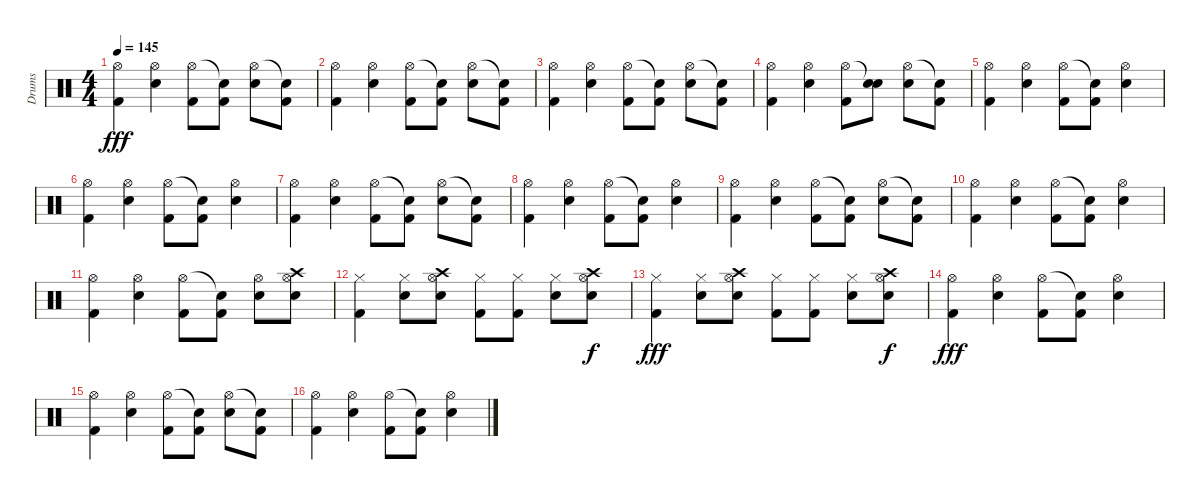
\track ("Drums" "Drums") {instrument percussion}
\staff {score}
\articulation defaults
\ts (4 4)
\tempo 145
\clef neutral
\ks c
("Hi-Hat (open)" "Kick (hit) 2").4{dy fff} ("Hi-Hat (open)" "Electric Snare (hit)").4 ("Hi-Hat (open)" "Kick (hit) 2").8 ("Snare (hit)"{t} "Kick (hit) 2").8 ("Hi-Hat (open)" "Electric Snare (hit)").8 ("Snare (hit)"{t} "Kick (hit) 2").8 |
("Hi-Hat (open)" "Kick (hit) 2").4 ("Hi-Hat (open)" "Electric Snare (hit)").4 ("Hi-Hat (open)" "Kick (hit) 2").8 ("Snare (hit)"{t} "Kick (hit) 2").8 ("Hi-Hat (open)" "Electric Snare (hit)").8 ("Snare (hit)"{t} "Kick (hit) 2").8 |
("Hi-Hat (open)" "Kick (hit) 2").4 ("Hi-Hat (open)" "Electric Snare (hit)").4 ("Hi-Hat (open)" "Kick (hit) 2").8 ("Snare (hit)"{t} "Kick (hit) 2").8 ("Hi-Hat (open)" "Electric Snare (hit)").8 ("Snare (hit)"{t} "Kick (hit) 2").8 |
("Hi-Hat (open)" "Kick (hit) 2").4 ("Hi-Hat (open)" "Electric Snare (hit)").4 ("Hi-Hat (open)" "Kick (hit) 2").8 ("Snare (hit)"{t} "Electric Snare (hit)").8 ("Hi-Hat (open)" "Electric Snare (hit)").8 ("Snare (hit)"{t} "Kick (hit) 2").8 |
("Hi-Hat (open)" "Kick (hit) 2").4 ("Hi-Hat (open)" "Electric Snare (hit)").4 ("Hi-Hat (open)" "Kick (hit) 2").8 ("Snare (hit)"{t} "Kick (hit) 2").8 ("Hi-Hat (open)" "Electric Snare (hit)").4 |
("Hi-Hat (open)" "Kick (hit) 2").4 ("Hi-Hat (open)" "Electric Snare (hit)").4 ("Hi-Hat (open)" "Kick (hit) 2").8 ("Snare (hit)"{t} "Kick (hit) 2").8 ("Hi-Hat (open)" "Electric Snare (hit)").4 |
("Hi-Hat (open)" "Kick (hit) 2").4 ("Hi-Hat (open)" "Electric Snare (hit)").4 ("Hi-Hat (open)" "Kick (hit) 2").8 ("Snare (hit)"{t} "Kick (hit) 2").8 ("Hi-Hat (open)" "Electric Snare (hit)").8 ("Snare (hit)"{t} "Kick (hit) 2").8 |
("Hi-Hat (open)" "Kick (hit) 2").4 ("Hi-Hat (open)" "Electric Snare (hit)").4 ("Hi-Hat (open)" "Kick (hit) 2").8 ("Snare (hit)"{t} "Kick (hit) 2").8 ("Hi-Hat (open)" "Electric Snare (hit)").4 |
("Hi-Hat (open)" "Kick (hit) 2").4 ("Hi-Hat (open)" "Electric Snare (hit)").4 ("Hi-Hat (open)" "Kick (hit) 2").8 ("Snare (hit)"{t} "Kick (hit) 2").8 ("Hi-Hat (open)" "Electric Snare (hit)").8 ("Snare (hit)"{t} "Kick (hit) 2").8 |
("Hi-Hat (open)" "Kick (hit) 2").4 ("Hi-Hat (open)" "Electric Snare (hit)").4 ("Hi-Hat (open)" "Kick (hit) 2").8 ("Snare (hit)"{t} "Kick (hit) 2").8 ("Hi-Hat (open)" "Electric Snare (hit)").4 |
("Hi-Hat (open)" "Kick (hit) 2").4 ("Hi-Hat (open)" "Electric Snare (hit)").4 ("Hi-Hat (open)" "Kick (hit) 2").8 ("Snare (hit)"{t} "Kick (hit) 2").8 ("Hi-Hat (open)" "Electric Snare (hit)").8 ("Hi-Hat (open)" "Electric Snare (hit)" "Crash high (hit)").8 |
("Hi-Hat (closed)" "Kick (hit) 2").4 ("Hi-Hat (closed)" "Electric Snare (hit)").8 ("Hi-Hat (open)" "Electric Snare (hit)" "Crash high (hit)").8 ("Hi-Hat (closed)" "Kick (hit) 2").8 ("Hi-Hat (closed)" "Kick (hit) 2").8 ("Hi-Hat (closed)" "Electric Snare (hit)").8 ("Hi-Hat (open)" "Electric Snare (hit)" "Crash high (hit)").8{dy f} |
("Hi-Hat (closed)" "Kick (hit) 2").4{dy fff} ("Hi-Hat (closed)" "Electric Snare (hit)").8 ("Hi-Hat (open)" "Electric Snare (hit)" "Crash high (hit)").8 ("Hi-Hat (closed)" "Kick (hit) 2").8 ("Hi-Hat (closed)" "Kick (hit) 2").8 ("Hi-Hat (closed)" "Electric Snare (hit)").8 ("Hi-Hat (open)" "Electric Snare (hit)" "Crash high (hit)").8{dy f} |
("Hi-Hat (open)" "Kick (hit) 2").4{dy fff} ("Hi-Hat (open)" "Electric Snare (hit)").4 ("Hi-Hat (open)" "Kick (hit) 2").8 ("Snare (hit)"{t} "Kick (hit) 2").8 ("Hi-Hat (open)" "Electric Snare (hit)").4 |
("Hi-Hat (open)" "Kick (hit) 2").4 ("Hi-Hat (open)" "Electric Snare (hit)").4 ("Hi-Hat (open)" "Kick (hit) 2").8 ("Snare (hit)"{t} "Kick (hit) 2").8 ("Hi-Hat (open)" "Electric Snare (hit)").8 ("Snare (hit)"{t} "Kick (hit) 2").8 |
("Hi-Hat (open)" "Kick (hit) 2").4 ("Hi-Hat (open)" "Electric Snare (hit)").4 ("Hi-Hat (open)" "Kick (hit) 2").8 ("Snare (hit)"{t} "Kick (hit) 2").8 ("Hi-Hat (open)" "Electric Snare (hit)").4
